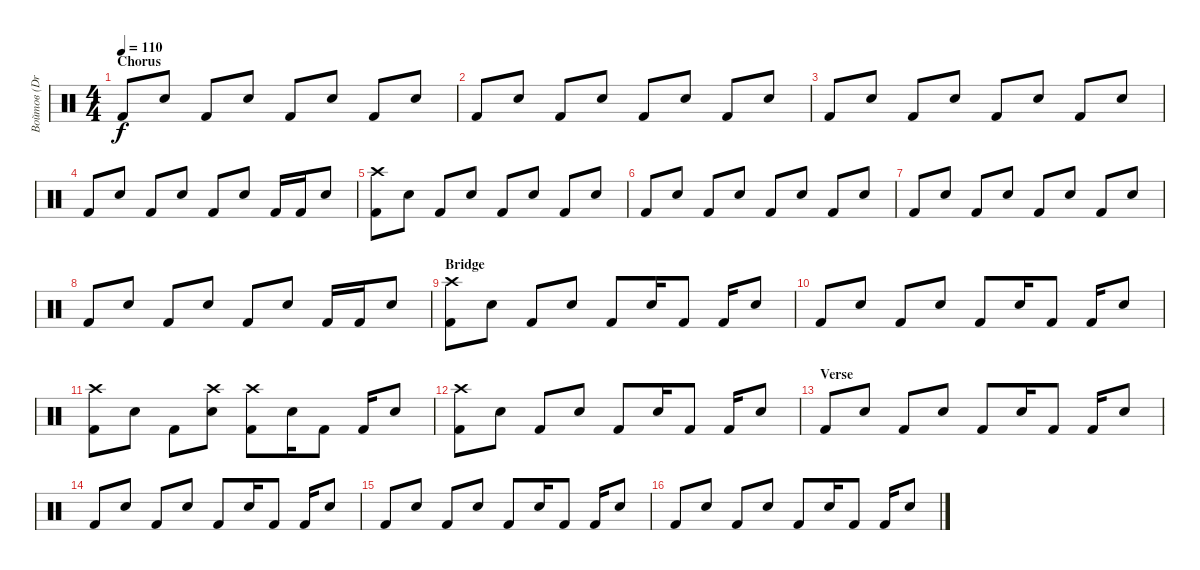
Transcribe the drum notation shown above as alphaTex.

\track ("Войтов (Drums)" "Войтов (Dr") {instrument percussion}
\staff {score}
\articulation defaults
\ts (4 4)
\section ("" "Chorus")
\tempo 110
\clef neutral
\ks c "Kick (hit) 2".8{dy f} "Electric Snare (hit)".8 "Kick (hit) 2".8 "Electric Snare (hit)".8 "Kick (hit) 2".8 "Electric Snare (hit)".8 "Kick (hit) 2".8 "Electric Snare (hit)".8
|
"Kick (hit) 2".8 "Electric Snare (hit)".8 "Kick (hit) 2".8 "Electric Snare (hit)".8 "Kick (hit) 2".8 "Electric Snare (hit)".8 "Kick (hit) 2".8 "Electric Snare (hit)".8 |
"Kick (hit) 2".8 "Electric Snare (hit)".8 "Kick (hit) 2".8 "Electric Snare (hit)".8 "Kick (hit) 2".8 "Electric Snare (hit)".8 "Kick (hit) 2".8 "Electric Snare (hit)".8 |
"Kick (hit) 2".8 "Electric Snare (hit)".8 "Kick (hit) 2".8 "Electric Snare (hit)".8 "Kick (hit) 2".8 "Electric Snare (hit)".8 "Kick (hit) 2".16 "Kick (hit) 2".16 "Electric Snare (hit)".8 |
("Kick (hit) 2" "Crash high (hit)").8 "Electric Snare (hit)".8 "Kick (hit) 2".8 "Electric Snare (hit)".8 "Kick (hit) 2".8 "Electric Snare (hit)".8 "Kick (hit) 2".8 "Electric Snare (hit)".8 |
"Kick (hit) 2".8 "Electric Snare (hit)".8 "Kick (hit) 2".8 "Electric Snare (hit)".8 "Kick (hit) 2".8 "Electric Snare (hit)".8 "Kick (hit) 2".8 "Electric Snare (hit)".8 |
"Kick (hit) 2".8 "Electric Snare (hit)".8 "Kick (hit) 2".8 "Electric Snare (hit)".8 "Kick (hit) 2".8 "Electric Snare (hit)".8 "Kick (hit) 2".8 "Electric Snare (hit)".8 |
"Kick (hit) 2".8 "Electric Snare (hit)".8 "Kick (hit) 2".8 "Electric Snare (hit)".8 "Kick (hit) 2".8 "Electric Snare (hit)".8 "Kick (hit) 2".16 "Kick (hit) 2".16 "Electric Snare (hit)".8 |
\section ("" "Bridge")
("Kick (hit) 2" "Crash high (hit)").8 "Electric Snare (hit)".8 "Kick (hit) 2".8 "Electric Snare (hit)".8 "Kick (hit) 2".8 "Electric Snare (hit)".16 "Kick (hit) 2".8 "Kick (hit) 2".16 "Electric Snare (hit)".8 |
"Kick (hit) 2".8 "Electric Snare (hit)".8 "Kick (hit) 2".8 "Electric Snare (hit)".8 "Kick (hit) 2".8 "Electric Snare (hit)".16 "Kick (hit) 2".8 "Kick (hit) 2".16 "Electric Snare (hit)".8 |
("Kick (hit) 2" "Crash high (hit)").8 "Electric Snare (hit)".8 "Kick (hit) 2".8 ("Electric Snare (hit)" "Crash high (hit)").8 ("Kick (hit) 2" "Crash high (hit)").8 "Electric Snare (hit)".16 "Kick (hit) 2".8 "Kick (hit) 2".16 "Electric Snare (hit)".8 |
("Kick (hit) 2" "Crash high (hit)").8 "Electric Snare (hit)".8 "Kick (hit) 2".8 "Electric Snare (hit)".8 "Kick (hit) 2".8 "Electric Snare (hit)".16 "Kick (hit) 2".8 "Kick (hit) 2".16 "Electric Snare (hit)".8 |
\section ("" "Verse")
"Kick (hit) 2".8 "Electric Snare (hit)".8 "Kick (hit) 2".8 "Electric Snare (hit)".8 "Kick (hit) 2".8 "Electric Snare (hit)".16 "Kick (hit) 2".8 "Kick (hit) 2".16 "Electric Snare (hit)".8 |
"Kick (hit) 2".8 "Electric Snare (hit)".8 "Kick (hit) 2".8 "Electric Snare (hit)".8 "Kick (hit) 2".8 "Electric Snare (hit)".16 "Kick (hit) 2".8 "Kick (hit) 2".16 "Electric Snare (hit)".8 |
"Kick (hit) 2".8 "Electric Snare (hit)".8 "Kick (hit) 2".8 "Electric Snare (hit)".8 "Kick (hit) 2".8 "Electric Snare (hit)".16 "Kick (hit) 2".8 "Kick (hit) 2".16 "Electric Snare (hit)".8 |
"Kick (hit) 2".8 "Electric Snare (hit)".8 "Kick (hit) 2".8 "Electric Snare (hit)".8 "Kick (hit) 2".8 "Electric Snare (hit)".16 "Kick (hit) 2".8 "Kick (hit) 2".16 "Electric Snare (hit)".8
